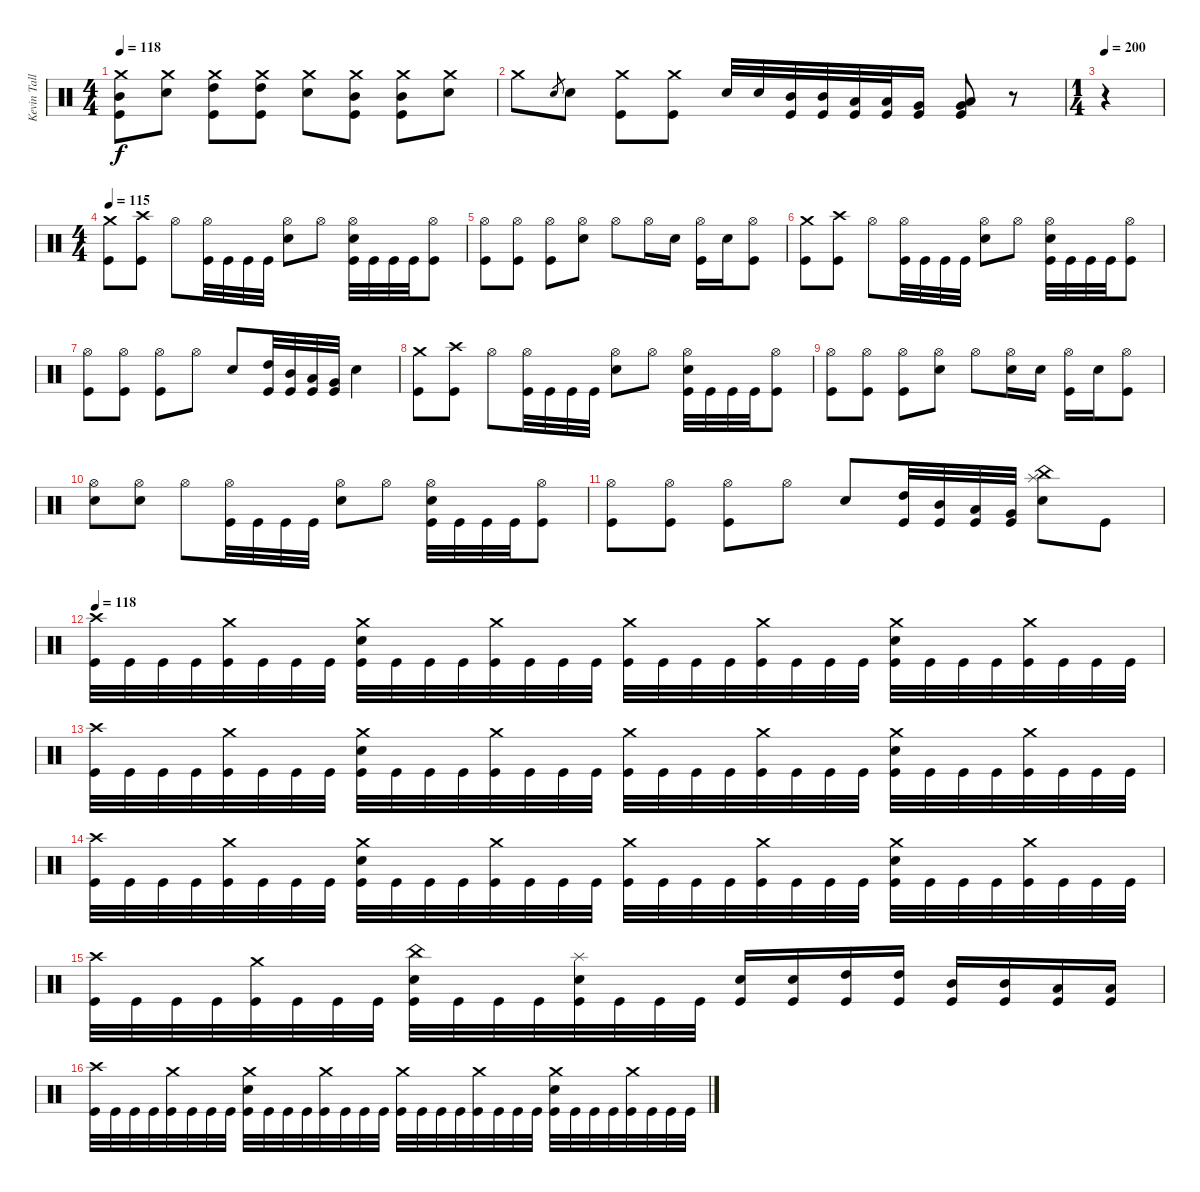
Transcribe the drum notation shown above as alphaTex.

\track ("Kevin Talley" "Kevin Tall") {instrument percussion}
\staff {score}
\articulation defaults
\ts (4 4)
\tempo 118
\clef neutral
\ks c
("Crash medium (hit)" "Mid Tom (hit)" "Kick (hit)").8{dy f} ("Crash medium (hit)" "Electric Snare (hit)").8 ("Crash medium (hit)" "High Tom (hit)" "Kick (hit)").8 ("Crash medium (hit)" "High Tom (hit)" "Kick (hit)").8 ("Crash medium (hit)" "Electric Snare (hit)").8 ("Crash medium (hit)" "Mid Tom (hit)" "Kick (hit)").8 ("Crash medium (hit)" "Mid Tom (hit)" "Kick (hit)").8 ("Crash medium (hit)" "Electric Snare (hit)").8 |
"Crash medium (hit)".8 "Electric Snare (hit)".8{gr} "Electric Snare (hit)".8 ("Crash medium (hit)" "Kick (hit)").8 ("Crash medium (hit)" "Kick (hit)").8 "Electric Snare (hit)".32 "Electric Snare (hit)".32 ("Mid Tom (hit)" "Kick (hit)").32 ("Mid Tom (hit)" "Kick (hit)").32 ("Low Tom (hit)" "Kick (hit)").32 ("Low Tom (hit)" "Kick (hit)").32 ("Very Low Tom (hit)" "Kick (hit)").16 ("Low Floor Tom (hit)" "Very Low Tom (hit)" "Kick (hit)").8 r.8 |
\ts (1 4)
\tempo 200
r.4 |
\ts (4 4)
\tempo 115
("Crash medium (hit)" "Kick (hit)").8 ("Crash high (hit)" "Kick (hit)").8 "Hi-Hat (open)".8 ("Hi-Hat (open)" "Kick (hit)").32 "Kick (hit)".32 "Kick (hit)".32 "Kick (hit)".32 ("Hi-Hat (open)" "Electric Snare (hit)").8 "Hi-Hat (open)".8 ("Hi-Hat (open)" "Electric Snare (hit)" "Kick (hit)").32 "Kick (hit)".32 "Kick (hit)".32 "Kick (hit)".32 ("Hi-Hat (open)" "Kick (hit)").8 |
("Hi-Hat (open)" "Kick (hit)").8 ("Hi-Hat (open)" "Kick (hit)").8 ("Hi-Hat (open)" "Kick (hit)").8 ("Hi-Hat (open)" "Electric Snare (hit)").8 "Hi-Hat (open)".8 "Hi-Hat (open)".16 "Electric Snare (hit)".16 ("Hi-Hat (open)" "Kick (hit)").16 "Electric Snare (hit)".16 ("Hi-Hat (open)" "Kick (hit)").8 |
("Crash medium (hit)" "Kick (hit)").8 ("Crash high (hit)" "Kick (hit)").8 "Hi-Hat (open)".8 ("Hi-Hat (open)" "Kick (hit)").32 "Kick (hit)".32 "Kick (hit)".32 "Kick (hit)".32 ("Hi-Hat (open)" "Electric Snare (hit)").8 "Hi-Hat (open)".8 ("Hi-Hat (open)" "Electric Snare (hit)" "Kick (hit)").32 "Kick (hit)".32 "Kick (hit)".32 "Kick (hit)".32 ("Hi-Hat (open)" "Kick (hit)").8 |
("Hi-Hat (open)" "Kick (hit)").8 ("Hi-Hat (open)" "Kick (hit)").8 ("Hi-Hat (open)" "Kick (hit)").8 "Hi-Hat (open)".8 "Electric Snare (hit)".8 ("High Tom (hit)" "Kick (hit)").32 ("Mid Tom (hit)" "Kick (hit)").32 ("Low Tom (hit)" "Kick (hit)").32 ("Very Low Tom (hit)" "Kick (hit)").32 "Electric Snare (hit)".4 |
("Crash medium (hit)" "Kick (hit)").8 ("Crash high (hit)" "Kick (hit)").8 "Hi-Hat (open)".8 ("Hi-Hat (open)" "Kick (hit)").32 "Kick (hit)".32 "Kick (hit)".32 "Kick (hit)".32 ("Hi-Hat (open)" "Electric Snare (hit)").8 "Hi-Hat (open)".8 ("Hi-Hat (open)" "Electric Snare (hit)" "Kick (hit)").32 "Kick (hit)".32 "Kick (hit)".32 "Kick (hit)".32 ("Hi-Hat (open)" "Kick (hit)").8 |
("Hi-Hat (open)" "Kick (hit)").8 ("Hi-Hat (open)" "Kick (hit)").8 ("Hi-Hat (open)" "Kick (hit)").8 ("Hi-Hat (open)" "Electric Snare (hit)").8 "Hi-Hat (open)".8 ("Hi-Hat (open)" "Electric Snare (hit)").16 "Electric Snare (hit)".16 ("Hi-Hat (open)" "Kick (hit)").16 "Electric Snare (hit)".16 ("Hi-Hat (open)" "Kick (hit)").8 |
("Hi-Hat (open)" "Electric Snare (hit)").8 ("Hi-Hat (open)" "Electric Snare (hit)").8 "Hi-Hat (open)".8 ("Hi-Hat (open)" "Kick (hit)").32 "Kick (hit)".32 "Kick (hit)".32 "Kick (hit)".32 ("Hi-Hat (open)" "Electric Snare (hit)").8 "Hi-Hat (open)".8 ("Hi-Hat (open)" "Electric Snare (hit)" "Kick (hit)").32 "Kick (hit)".32 "Kick (hit)".32 "Kick (hit)".32 ("Hi-Hat (open)" "Kick (hit)").8 |
("Hi-Hat (open)" "Kick (hit)").8 ("Hi-Hat (open)" "Kick (hit)").8 ("Hi-Hat (open)" "Kick (hit)").8 "Hi-Hat (open)".8 "Electric Snare (hit)".8 ("High Tom (hit)" "Kick (hit)").32 ("Mid Tom (hit)" "Kick (hit)").32 ("Low Tom (hit)" "Kick (hit)").32 ("Very Low Tom (hit)" "Kick (hit)").32 ("China (hit)" "Splash (hit)" "Electric Snare (hit)").8 "Kick (hit)".8 |
\tempo 118
("Crash high (hit)" "Kick (hit)").32 "Kick (hit)".32 "Kick (hit)".32 "Kick (hit)".32 ("Crash medium (hit)" "Kick (hit)").32 "Kick (hit)".32 "Kick (hit)".32 "Kick (hit)".32 ("Crash medium (hit)" "Electric Snare (hit)" "Kick (hit)").32 "Kick (hit)".32 "Kick (hit)".32 "Kick (hit)".32 ("Crash medium (hit)" "Kick (hit)").32 "Kick (hit)".32 "Kick (hit)".32 "Kick (hit)".32 ("Crash medium (hit)" "Kick (hit)").32 "Kick (hit)".32 "Kick (hit)".32 "Kick (hit)".32 ("Crash medium (hit)" "Kick (hit)").32 "Kick (hit)".32 "Kick (hit)".32 "Kick (hit)".32 ("Crash medium (hit)" "Electric Snare (hit)" "Kick (hit)").32 "Kick (hit)".32 "Kick (hit)".32 "Kick (hit)".32 ("Crash medium (hit)" "Kick (hit)").32 "Kick (hit)".32 "Kick (hit)".32 "Kick (hit)".32 |
("Crash high (hit)" "Kick (hit)").32 "Kick (hit)".32 "Kick (hit)".32 "Kick (hit)".32 ("Crash medium (hit)" "Kick (hit)").32 "Kick (hit)".32 "Kick (hit)".32 "Kick (hit)".32 ("Crash medium (hit)" "Electric Snare (hit)" "Kick (hit)").32 "Kick (hit)".32 "Kick (hit)".32 "Kick (hit)".32 ("Crash medium (hit)" "Kick (hit)").32 "Kick (hit)".32 "Kick (hit)".32 "Kick (hit)".32 ("Crash medium (hit)" "Kick (hit)").32 "Kick (hit)".32 "Kick (hit)".32 "Kick (hit)".32 ("Crash medium (hit)" "Kick (hit)").32 "Kick (hit)".32 "Kick (hit)".32 "Kick (hit)".32 ("Crash medium (hit)" "Electric Snare (hit)" "Kick (hit)").32 "Kick (hit)".32 "Kick (hit)".32 "Kick (hit)".32 ("Crash medium (hit)" "Kick (hit)").32 "Kick (hit)".32 "Kick (hit)".32 "Kick (hit)".32 |
("Crash high (hit)" "Kick (hit)").32 "Kick (hit)".32 "Kick (hit)".32 "Kick (hit)".32 ("Crash medium (hit)" "Kick (hit)").32 "Kick (hit)".32 "Kick (hit)".32 "Kick (hit)".32 ("Crash medium (hit)" "Electric Snare (hit)" "Kick (hit)").32 "Kick (hit)".32 "Kick (hit)".32 "Kick (hit)".32 ("Crash medium (hit)" "Kick (hit)").32 "Kick (hit)".32 "Kick (hit)".32 "Kick (hit)".32 ("Crash medium (hit)" "Kick (hit)").32 "Kick (hit)".32 "Kick (hit)".32 "Kick (hit)".32 ("Crash medium (hit)" "Kick (hit)").32 "Kick (hit)".32 "Kick (hit)".32 "Kick (hit)".32 ("Crash medium (hit)" "Electric Snare (hit)" "Kick (hit)").32 "Kick (hit)".32 "Kick (hit)".32 "Kick (hit)".32 ("Crash medium (hit)" "Kick (hit)").32 "Kick (hit)".32 "Kick (hit)".32 "Kick (hit)".32 |
("Crash high (hit)" "Kick (hit)").32 "Kick (hit)".32 "Kick (hit)".32 "Kick (hit)".32 ("Crash medium (hit)" "Kick (hit)").32 "Kick (hit)".32 "Kick (hit)".32 "Kick (hit)".32 ("China (hit)" "Electric Snare (hit)" "Kick (hit)").32 "Kick (hit)".32 "Kick (hit)".32 "Kick (hit)".32 ("Splash (hit)" "Electric Snare (hit)" "Kick (hit)").32 "Kick (hit)".32 "Kick (hit)".32 "Kick (hit)".32 ("Electric Snare (hit)" "Kick (hit)").16 ("Electric Snare (hit)" "Kick (hit)").16 ("High Tom (hit)" "Kick (hit)").16 ("High Tom (hit)" "Kick (hit)").16 ("Mid Tom (hit)" "Kick (hit)").16 ("Mid Tom (hit)" "Kick (hit)").16 ("Low Tom (hit)" "Kick (hit)").16 ("Low Tom (hit)" "Kick (hit)").16 |
("Crash high (hit)" "Kick (hit)").32 "Kick (hit)".32 "Kick (hit)".32 "Kick (hit)".32 ("Crash medium (hit)" "Kick (hit)").32 "Kick (hit)".32 "Kick (hit)".32 "Kick (hit)".32 ("Crash medium (hit)" "Electric Snare (hit)" "Kick (hit)").32 "Kick (hit)".32 "Kick (hit)".32 "Kick (hit)".32 ("Crash medium (hit)" "Kick (hit)").32 "Kick (hit)".32 "Kick (hit)".32 "Kick (hit)".32 ("Crash medium (hit)" "Kick (hit)").32 "Kick (hit)".32 "Kick (hit)".32 "Kick (hit)".32 ("Crash medium (hit)" "Kick (hit)").32 "Kick (hit)".32 "Kick (hit)".32 "Kick (hit)".32 ("Crash medium (hit)" "Electric Snare (hit)" "Kick (hit)").32 "Kick (hit)".32 "Kick (hit)".32 "Kick (hit)".32 ("Crash medium (hit)" "Kick (hit)").32 "Kick (hit)".32 "Kick (hit)".32 "Kick (hit)".32
